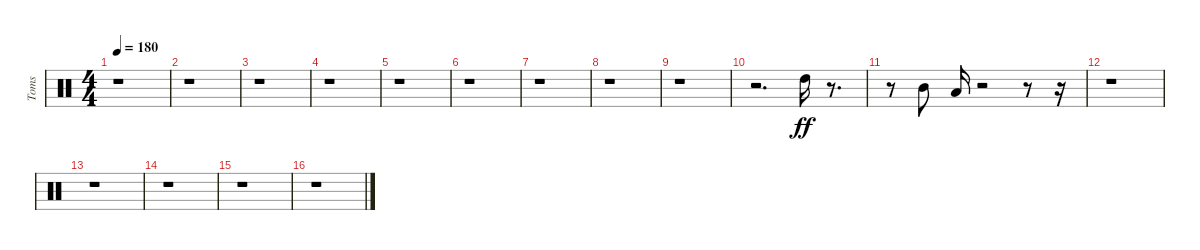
\track ("Toms" "Toms") {instrument percussion}
\staff {score}
\articulation defaults
\ts (4 4)
\tempo 180
\clef neutral
\ks c
r.1{dy f} |
r.1 |
r.1 |
r.1 |
r.1 |
r.1 |
r.1 |
r.1 |
r.1 |
r.2{d} "High Tom (hit)".16{dy ff} r.8{d} |
r.8 "Mid Tom (hit)".8 "Low Tom (hit)".16 r.2 r.8 r.16 |
r.1 |
r.1 |
r.1 |
r.1 |
r.1
